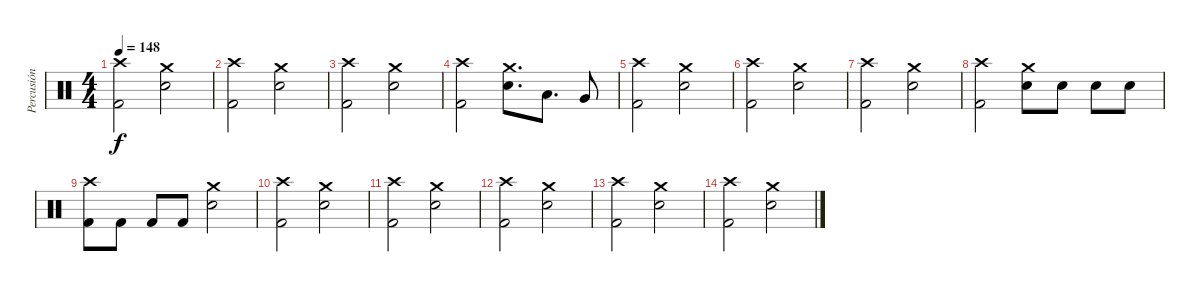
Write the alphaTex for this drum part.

\track ("Percusión" "Percusión") {instrument percussion}
\staff {score}
\articulation defaults
\ts (4 4)
\tempo 148
\clef neutral
\ks c
("Crash high (hit)" "Kick (hit) 2").2{dy f volume 12} ("Crash medium (hit)" "Electric Snare (hit)").2 |
("Crash high (hit)" "Kick (hit) 2").2 ("Crash medium (hit)" "Electric Snare (hit)").2 |
("Crash high (hit)" "Kick (hit) 2").2 ("Crash medium (hit)" "Electric Snare (hit)").2 |
("Crash high (hit)" "Kick (hit) 2").2 ("Crash medium (hit)" "Electric Snare (hit)").8{d volume 8} "Low Tom (hit)".8{d} "Very Low Tom (hit)".8 |
("Crash high (hit)" "Kick (hit) 2").2 ("Crash medium (hit)" "Electric Snare (hit)").2 |
("Crash high (hit)" "Kick (hit) 2").2 ("Crash medium (hit)" "Electric Snare (hit)").2 |
("Crash high (hit)" "Kick (hit) 2").2 ("Crash medium (hit)" "Electric Snare (hit)").2 |
("Crash high (hit)" "Kick (hit) 2").2{volume 4} ("Crash medium (hit)" "Electric Snare (hit)").8 "Electric Snare (hit)".8 "Electric Snare (hit)".8 "Electric Snare (hit)".8 |
("Crash high (hit)" "Kick (hit) 2").8 "Kick (hit) 2".8 "Kick (hit) 2".8 "Kick (hit) 2".8 ("Crash medium (hit)" "Electric Snare (hit)").2 |
("Crash high (hit)" "Kick (hit) 2").2 ("Crash medium (hit)" "Electric Snare (hit)").2 |
("Crash high (hit)" "Kick (hit) 2").2 ("Crash medium (hit)" "Electric Snare (hit)").2{volume 0} |
("Crash high (hit)" "Kick (hit) 2").2 ("Crash medium (hit)" "Electric Snare (hit)").2 |
("Crash high (hit)" "Kick (hit) 2").2 ("Crash medium (hit)" "Electric Snare (hit)").2 |
("Crash high (hit)" "Kick (hit) 2").2 ("Crash medium (hit)" "Electric Snare (hit)").2
